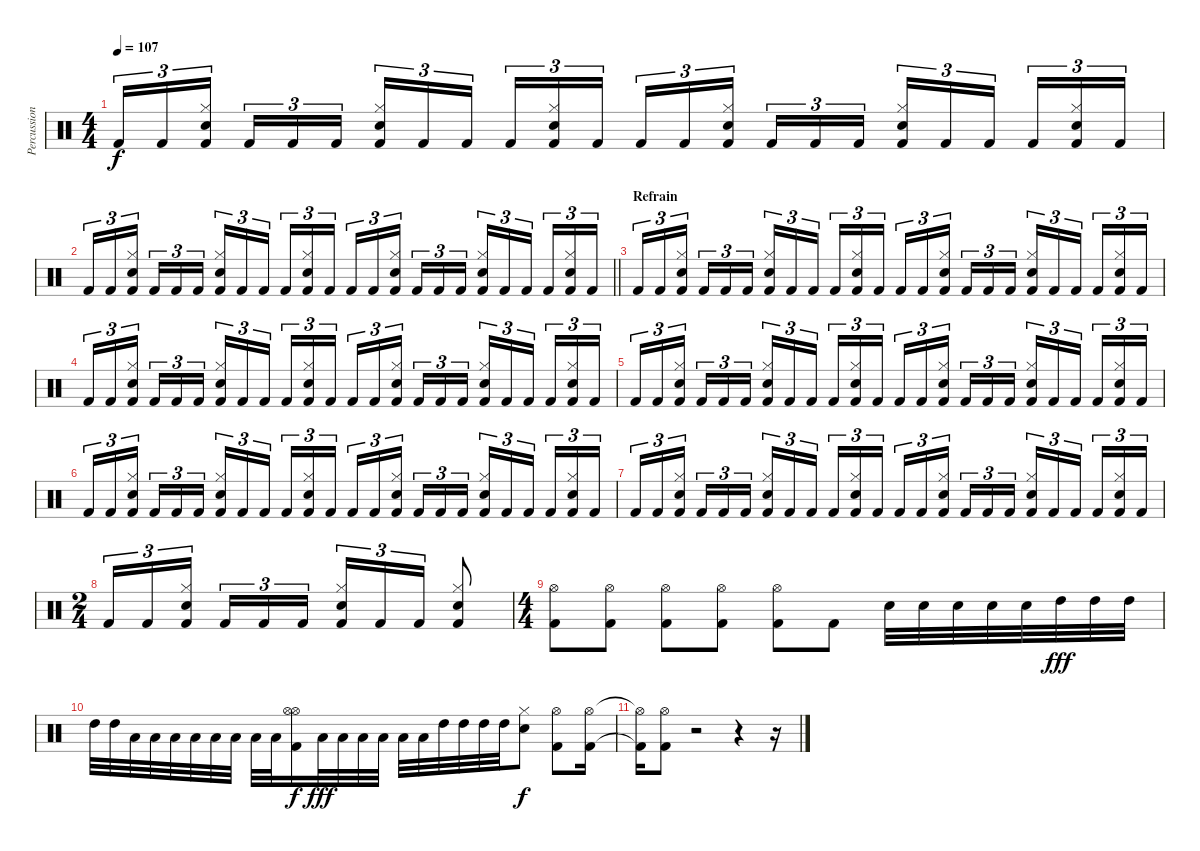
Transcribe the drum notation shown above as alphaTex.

\track ("Percussion" "Percussion") {instrument percussion}
\staff {score}
\articulation defaults
\ts (4 4)
\tempo 107
\clef neutral
\ks c "Kick (hit) 2".16{tu (3 2) dy f} "Kick (hit) 2".16{tu (3 2)}
("Kick (hit) 2" "Hi-Hat (closed)" "Electric Snare (hit)").16{tu (3 2) beam splitsecondary} "Kick (hit) 2".16{tu (3 2)} "Kick (hit) 2".16{tu (3 2)} "Kick (hit) 2".16{tu (3 2)} ("Kick (hit) 2" "Electric Snare (hit)" "Hi-Hat (closed)").16{tu (3 2)} "Kick (hit) 2".16{tu (3 2)} "Kick (hit) 2".16{tu (3 2) beam splitsecondary} "Kick (hit) 2".16{tu (3 2)} ("Kick (hit) 2" "Hi-Hat (closed)" "Electric Snare (hit)").16{tu (3 2)} "Kick (hit) 2".16{tu (3 2)} "Kick (hit) 2".16{tu (3 2)} "Kick (hit) 2".16{tu (3 2)} ("Kick (hit) 2" "Electric Snare (hit)" "Hi-Hat (closed)").16{tu (3 2) beam splitsecondary} "Kick (hit) 2".16{tu (3 2)} "Kick (hit) 2".16{tu (3 2)} "Kick (hit) 2".16{tu (3 2)} ("Kick (hit) 2" "Hi-Hat (closed)" "Electric Snare (hit)").16{tu (3 2)} "Kick (hit) 2".16{tu (3 2)} "Kick (hit) 2".16{tu (3 2) beam splitsecondary} "Kick (hit) 2".16{tu (3 2)} ("Kick (hit) 2" "Electric Snare (hit)" "Hi-Hat (closed)").16{tu (3 2)} "Kick (hit) 2".16{tu (3 2)} |
\barLineRight lightlight "Kick (hit) 2".16{tu (3 2)} "Kick (hit) 2".16{tu (3 2)}
("Kick (hit) 2" "Hi-Hat (closed)" "Electric Snare (hit)").16{tu (3 2) beam splitsecondary} "Kick (hit) 2".16{tu (3 2)} "Kick (hit) 2".16{tu (3 2)} "Kick (hit) 2".16{tu (3 2)} ("Kick (hit) 2" "Electric Snare (hit)" "Hi-Hat (closed)").16{tu (3 2)} "Kick (hit) 2".16{tu (3 2)} "Kick (hit) 2".16{tu (3 2) beam splitsecondary} "Kick (hit) 2".16{tu (3 2)} ("Kick (hit) 2" "Hi-Hat (closed)" "Electric Snare (hit)").16{tu (3 2)} "Kick (hit) 2".16{tu (3 2)} "Kick (hit) 2".16{tu (3 2)} "Kick (hit) 2".16{tu (3 2)} ("Kick (hit) 2" "Electric Snare (hit)" "Hi-Hat (closed)").16{tu (3 2) beam splitsecondary} "Kick (hit) 2".16{tu (3 2)} "Kick (hit) 2".16{tu (3 2)} "Kick (hit) 2".16{tu (3 2)} ("Kick (hit) 2" "Hi-Hat (closed)" "Electric Snare (hit)").16{tu (3 2)} "Kick (hit) 2".16{tu (3 2)} "Kick (hit) 2".16{tu (3 2) beam splitsecondary} "Kick (hit) 2".16{tu (3 2)} ("Kick (hit) 2" "Electric Snare (hit)" "Hi-Hat (closed)").16{tu (3 2)} "Kick (hit) 2".16{tu (3 2)} |
\section ("" "Refrain")
"Kick (hit) 2".16{tu (3 2)} "Kick (hit) 2".16{tu (3 2)} ("Kick (hit) 2" "Hi-Hat (closed)" "Electric Snare (hit)").16{tu (3 2) beam splitsecondary} "Kick (hit) 2".16{tu (3 2)} "Kick (hit) 2".16{tu (3 2)} "Kick (hit) 2".16{tu (3 2)} ("Kick (hit) 2" "Electric Snare (hit)" "Hi-Hat (closed)").16{tu (3 2)} "Kick (hit) 2".16{tu (3 2)} "Kick (hit) 2".16{tu (3 2) beam splitsecondary} "Kick (hit) 2".16{tu (3 2)} ("Kick (hit) 2" "Hi-Hat (closed)" "Electric Snare (hit)").16{tu (3 2)} "Kick (hit) 2".16{tu (3 2)} "Kick (hit) 2".16{tu (3 2)} "Kick (hit) 2".16{tu (3 2)} ("Kick (hit) 2" "Electric Snare (hit)" "Hi-Hat (closed)").16{tu (3 2) beam splitsecondary} "Kick (hit) 2".16{tu (3 2)} "Kick (hit) 2".16{tu (3 2)} "Kick (hit) 2".16{tu (3 2)} ("Kick (hit) 2" "Hi-Hat (closed)" "Electric Snare (hit)").16{tu (3 2)} "Kick (hit) 2".16{tu (3 2)} "Kick (hit) 2".16{tu (3 2) beam splitsecondary} "Kick (hit) 2".16{tu (3 2)} ("Kick (hit) 2" "Electric Snare (hit)" "Hi-Hat (closed)").16{tu (3 2)} "Kick (hit) 2".16{tu (3 2)} |
"Kick (hit) 2".16{tu (3 2)} "Kick (hit) 2".16{tu (3 2)} ("Kick (hit) 2" "Hi-Hat (closed)" "Electric Snare (hit)").16{tu (3 2) beam splitsecondary} "Kick (hit) 2".16{tu (3 2)} "Kick (hit) 2".16{tu (3 2)} "Kick (hit) 2".16{tu (3 2)} ("Kick (hit) 2" "Electric Snare (hit)" "Hi-Hat (closed)").16{tu (3 2)} "Kick (hit) 2".16{tu (3 2)} "Kick (hit) 2".16{tu (3 2) beam splitsecondary} "Kick (hit) 2".16{tu (3 2)} ("Kick (hit) 2" "Hi-Hat (closed)" "Electric Snare (hit)").16{tu (3 2)} "Kick (hit) 2".16{tu (3 2)} "Kick (hit) 2".16{tu (3 2)} "Kick (hit) 2".16{tu (3 2)} ("Kick (hit) 2" "Electric Snare (hit)" "Hi-Hat (closed)").16{tu (3 2) beam splitsecondary} "Kick (hit) 2".16{tu (3 2)} "Kick (hit) 2".16{tu (3 2)} "Kick (hit) 2".16{tu (3 2)} ("Kick (hit) 2" "Hi-Hat (closed)" "Electric Snare (hit)").16{tu (3 2)} "Kick (hit) 2".16{tu (3 2)} "Kick (hit) 2".16{tu (3 2) beam splitsecondary} "Kick (hit) 2".16{tu (3 2)} ("Kick (hit) 2" "Electric Snare (hit)" "Hi-Hat (closed)").16{tu (3 2)} "Kick (hit) 2".16{tu (3 2)} |
"Kick (hit) 2".16{tu (3 2)} "Kick (hit) 2".16{tu (3 2)} ("Kick (hit) 2" "Hi-Hat (closed)" "Electric Snare (hit)").16{tu (3 2) beam splitsecondary} "Kick (hit) 2".16{tu (3 2)} "Kick (hit) 2".16{tu (3 2)} "Kick (hit) 2".16{tu (3 2)} ("Kick (hit) 2" "Electric Snare (hit)" "Hi-Hat (closed)").16{tu (3 2)} "Kick (hit) 2".16{tu (3 2)} "Kick (hit) 2".16{tu (3 2) beam splitsecondary} "Kick (hit) 2".16{tu (3 2)} ("Kick (hit) 2" "Hi-Hat (closed)" "Electric Snare (hit)").16{tu (3 2)} "Kick (hit) 2".16{tu (3 2)} "Kick (hit) 2".16{tu (3 2)} "Kick (hit) 2".16{tu (3 2)} ("Kick (hit) 2" "Electric Snare (hit)" "Hi-Hat (closed)").16{tu (3 2) beam splitsecondary} "Kick (hit) 2".16{tu (3 2)} "Kick (hit) 2".16{tu (3 2)} "Kick (hit) 2".16{tu (3 2)} ("Kick (hit) 2" "Hi-Hat (closed)" "Electric Snare (hit)").16{tu (3 2)} "Kick (hit) 2".16{tu (3 2)} "Kick (hit) 2".16{tu (3 2) beam splitsecondary} "Kick (hit) 2".16{tu (3 2)} ("Kick (hit) 2" "Electric Snare (hit)" "Hi-Hat (closed)").16{tu (3 2)} "Kick (hit) 2".16{tu (3 2)} |
"Kick (hit) 2".16{tu (3 2)} "Kick (hit) 2".16{tu (3 2)} ("Kick (hit) 2" "Hi-Hat (closed)" "Electric Snare (hit)").16{tu (3 2) beam splitsecondary} "Kick (hit) 2".16{tu (3 2)} "Kick (hit) 2".16{tu (3 2)} "Kick (hit) 2".16{tu (3 2)} ("Kick (hit) 2" "Electric Snare (hit)" "Hi-Hat (closed)").16{tu (3 2)} "Kick (hit) 2".16{tu (3 2)} "Kick (hit) 2".16{tu (3 2) beam splitsecondary} "Kick (hit) 2".16{tu (3 2)} ("Kick (hit) 2" "Hi-Hat (closed)" "Electric Snare (hit)").16{tu (3 2)} "Kick (hit) 2".16{tu (3 2)} "Kick (hit) 2".16{tu (3 2)} "Kick (hit) 2".16{tu (3 2)} ("Kick (hit) 2" "Electric Snare (hit)" "Hi-Hat (closed)").16{tu (3 2) beam splitsecondary} "Kick (hit) 2".16{tu (3 2)} "Kick (hit) 2".16{tu (3 2)} "Kick (hit) 2".16{tu (3 2)} ("Kick (hit) 2" "Hi-Hat (closed)" "Electric Snare (hit)").16{tu (3 2)} "Kick (hit) 2".16{tu (3 2)} "Kick (hit) 2".16{tu (3 2) beam splitsecondary} "Kick (hit) 2".16{tu (3 2)} ("Kick (hit) 2" "Electric Snare (hit)" "Hi-Hat (closed)").16{tu (3 2)} "Kick (hit) 2".16{tu (3 2)} |
"Kick (hit) 2".16{tu (3 2)} "Kick (hit) 2".16{tu (3 2)} ("Kick (hit) 2" "Hi-Hat (closed)" "Electric Snare (hit)").16{tu (3 2) beam splitsecondary} "Kick (hit) 2".16{tu (3 2)} "Kick (hit) 2".16{tu (3 2)} "Kick (hit) 2".16{tu (3 2)} ("Kick (hit) 2" "Electric Snare (hit)" "Hi-Hat (closed)").16{tu (3 2)} "Kick (hit) 2".16{tu (3 2)} "Kick (hit) 2".16{tu (3 2) beam splitsecondary} "Kick (hit) 2".16{tu (3 2)} ("Kick (hit) 2" "Hi-Hat (closed)" "Electric Snare (hit)").16{tu (3 2)} "Kick (hit) 2".16{tu (3 2)} "Kick (hit) 2".16{tu (3 2)} "Kick (hit) 2".16{tu (3 2)} ("Kick (hit) 2" "Electric Snare (hit)" "Hi-Hat (closed)").16{tu (3 2) beam splitsecondary} "Kick (hit) 2".16{tu (3 2)} "Kick (hit) 2".16{tu (3 2)} "Kick (hit) 2".16{tu (3 2)} ("Kick (hit) 2" "Hi-Hat (closed)" "Electric Snare (hit)").16{tu (3 2)} "Kick (hit) 2".16{tu (3 2)} "Kick (hit) 2".16{tu (3 2) beam splitsecondary} "Kick (hit) 2".16{tu (3 2)} ("Kick (hit) 2" "Electric Snare (hit)" "Hi-Hat (closed)").16{tu (3 2)} "Kick (hit) 2".16{tu (3 2)} |
\ts (2 4)
"Kick (hit) 2".16{tu (3 2)} "Kick (hit) 2".16{tu (3 2)} ("Kick (hit) 2" "Hi-Hat (closed)" "Electric Snare (hit)").16{tu (3 2) beam splitsecondary} "Kick (hit) 2".16{tu (3 2)} "Kick (hit) 2".16{tu (3 2)} "Kick (hit) 2".16{tu (3 2)} ("Kick (hit) 2" "Hi-Hat (closed)" "Electric Snare (hit)").16{tu (3 2)} "Kick (hit) 2".16{tu (3 2)} "Kick (hit) 2".16{tu (3 2)} ("Kick (hit) 2" "Electric Snare (hit)" "Hi-Hat (closed)").8 |
\ts (4 4)
("Hi-Hat (open)" "Kick (hit) 2").8 ("Hi-Hat (open)" "Kick (hit) 2").8 ("Hi-Hat (open)" "Kick (hit) 2").8 ("Hi-Hat (open)" "Kick (hit) 2").8 ("Hi-Hat (open)" "Kick (hit) 2").8 "Kick (hit) 2".8 "Electric Snare (hit)".32 "Electric Snare (hit)".32 "Electric Snare (hit)".32 "Electric Snare (hit)".32 "Electric Snare (hit)".32 "High Tom (hit)".32{dy fff} "High Tom (hit)".32 "High Tom (hit)".32 |
"High Tom (hit)".32 "High Tom (hit)".32 "Low Floor Tom (hit)".32 "Low Floor Tom (hit)".32 "Low Floor Tom (hit)".32 "Low Floor Tom (hit)".32 "Low Floor Tom (hit)".32 "Low Floor Tom (hit)".32 "Low Tom (hit)".32 "Low Tom (hit)".32 ("Kick (hit) 2" "Hi-Hat (open)" "Hi-Hat (open)").16{dy f} "Low Tom (hit)".32{dy fff} "Low Tom (hit)".32 "Low Tom (hit)".32 "Low Tom (hit)".32 "Low Tom (hit)".32 "Low Tom (hit)".32 "High Tom (hit)".32 "High Tom (hit)".32 "High Tom (hit)".32 "High Tom (hit)".32 ("Electric Snare (hit)" "Hi-Hat (closed)").8{dy f} ("Kick (hit) 2" "Hi-Hat (open)").8 ("Kick (hit) 2" "Hi-Hat (open)").16 |
("Kick (hit) 2"{t} "Hi-Hat (open)"{t}).16 ("Kick (hit) 2" "Hi-Hat (open)").8 r.2 r.4 r.16
